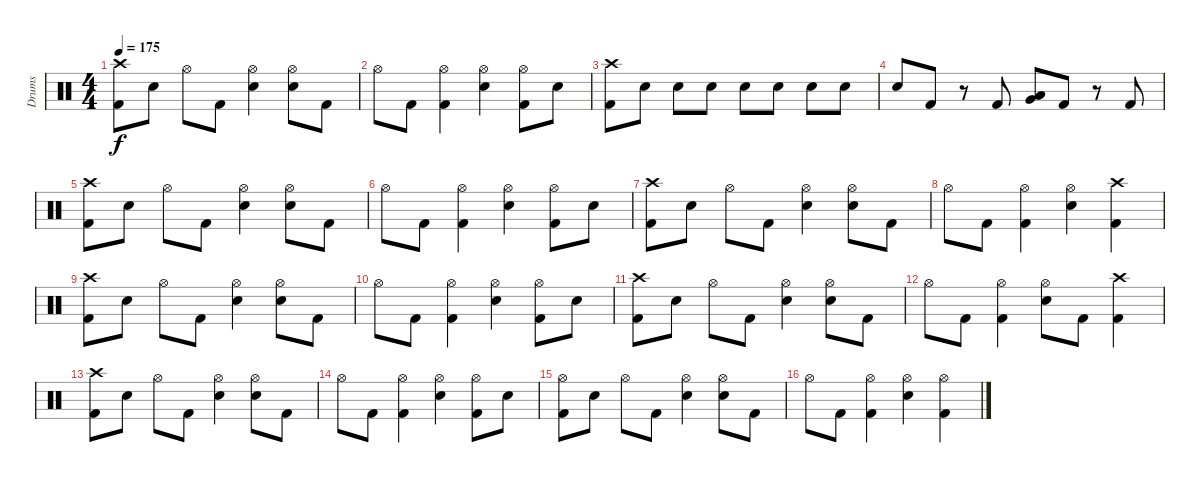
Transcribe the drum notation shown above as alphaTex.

\track ("Drums" "Drums") {instrument percussion}
\staff {score}
\articulation defaults
\ts (4 4)
\tempo 175
\clef neutral
\ks c
("Crash high (hit)" "Kick (hit) 2").8{dy f} "Electric Snare (hit)".8 "Hi-Hat (open)".8 "Kick (hit) 2".8 ("Hi-Hat (open)" "Electric Snare (hit)").4 ("Hi-Hat (open)" "Electric Snare (hit)").8 "Kick (hit) 2".8 |
"Hi-Hat (open)".8 "Kick (hit) 2".8 ("Hi-Hat (open)" "Kick (hit) 2").4 ("Hi-Hat (open)" "Electric Snare (hit)").4 ("Hi-Hat (open)" "Kick (hit) 2").8 "Electric Snare (hit)".8 |
("Crash high (hit)" "Kick (hit) 2").8 "Electric Snare (hit)".8 "Electric Snare (hit)".8 "Electric Snare (hit)".8 "Electric Snare (hit)".8 "Electric Snare (hit)".8 "Electric Snare (hit)".8 "Electric Snare (hit)".8 |
"Electric Snare (hit)".8 "Kick (hit) 2".8 r.8 "Kick (hit) 2".8 ("Very Low Tom (hit)" "Low Floor Tom (hit)").8{bd 240} "Kick (hit) 2".8 r.8 "Kick (hit) 2".8 |
("Crash high (hit)" "Kick (hit) 2").8 "Electric Snare (hit)".8 "Hi-Hat (open)".8 "Kick (hit) 2".8 ("Hi-Hat (open)" "Electric Snare (hit)").4 ("Hi-Hat (open)" "Electric Snare (hit)").8 "Kick (hit) 2".8 |
"Hi-Hat (open)".8 "Kick (hit) 2".8 ("Hi-Hat (open)" "Kick (hit) 2").4 ("Hi-Hat (open)" "Electric Snare (hit)").4 ("Hi-Hat (open)" "Kick (hit) 2").8 "Electric Snare (hit)".8 |
("Crash high (hit)" "Kick (hit) 2").8 "Electric Snare (hit)".8 "Hi-Hat (open)".8 "Kick (hit) 2".8 ("Hi-Hat (open)" "Electric Snare (hit)").4 ("Hi-Hat (open)" "Electric Snare (hit)").8 "Kick (hit) 2".8 |
"Hi-Hat (open)".8 "Kick (hit) 2".8 ("Hi-Hat (open)" "Kick (hit) 2").4 ("Hi-Hat (open)" "Electric Snare (hit)").4 ("Crash high (hit)" "Kick (hit) 2").4 |
("Crash high (hit)" "Kick (hit) 2").8 "Electric Snare (hit)".8 "Hi-Hat (open)".8 "Kick (hit) 2".8 ("Hi-Hat (open)" "Electric Snare (hit)").4 ("Hi-Hat (open)" "Electric Snare (hit)").8 "Kick (hit) 2".8 |
"Hi-Hat (open)".8 "Kick (hit) 2".8 ("Hi-Hat (open)" "Kick (hit) 2").4 ("Hi-Hat (open)" "Electric Snare (hit)").4 ("Hi-Hat (open)" "Kick (hit) 2").8 "Electric Snare (hit)".8 |
("Crash high (hit)" "Kick (hit) 2").8 "Electric Snare (hit)".8 "Hi-Hat (open)".8 "Kick (hit) 2".8 ("Hi-Hat (open)" "Electric Snare (hit)").4 ("Hi-Hat (open)" "Electric Snare (hit)").8 "Kick (hit) 2".8 |
"Hi-Hat (open)".8 "Kick (hit) 2".8 ("Hi-Hat (open)" "Kick (hit) 2").4 ("Hi-Hat (open)" "Electric Snare (hit)").8 "Kick (hit) 2".8 ("Crash high (hit)" "Kick (hit) 2").4 |
("Crash high (hit)" "Kick (hit) 2").8 "Electric Snare (hit)".8 "Hi-Hat (open)".8 "Kick (hit) 2".8 ("Hi-Hat (open)" "Electric Snare (hit)").4 ("Hi-Hat (open)" "Electric Snare (hit)").8 "Kick (hit) 2".8 |
"Hi-Hat (open)".8 "Kick (hit) 2".8 ("Hi-Hat (open)" "Kick (hit) 2").4 ("Hi-Hat (open)" "Electric Snare (hit)").4 ("Hi-Hat (open)" "Kick (hit) 2").8 "Electric Snare (hit)".8 |
("Hi-Hat (open)" "Kick (hit) 2").8 "Electric Snare (hit)".8 "Hi-Hat (open)".8 "Kick (hit) 2".8 ("Hi-Hat (open)" "Electric Snare (hit)").4 ("Hi-Hat (open)" "Electric Snare (hit)").8 "Kick (hit) 2".8 |
"Hi-Hat (open)".8 "Kick (hit) 2".8 ("Hi-Hat (open)" "Kick (hit) 2").4 ("Hi-Hat (open)" "Electric Snare (hit)").4 ("Hi-Hat (open)" "Kick (hit) 2").4
